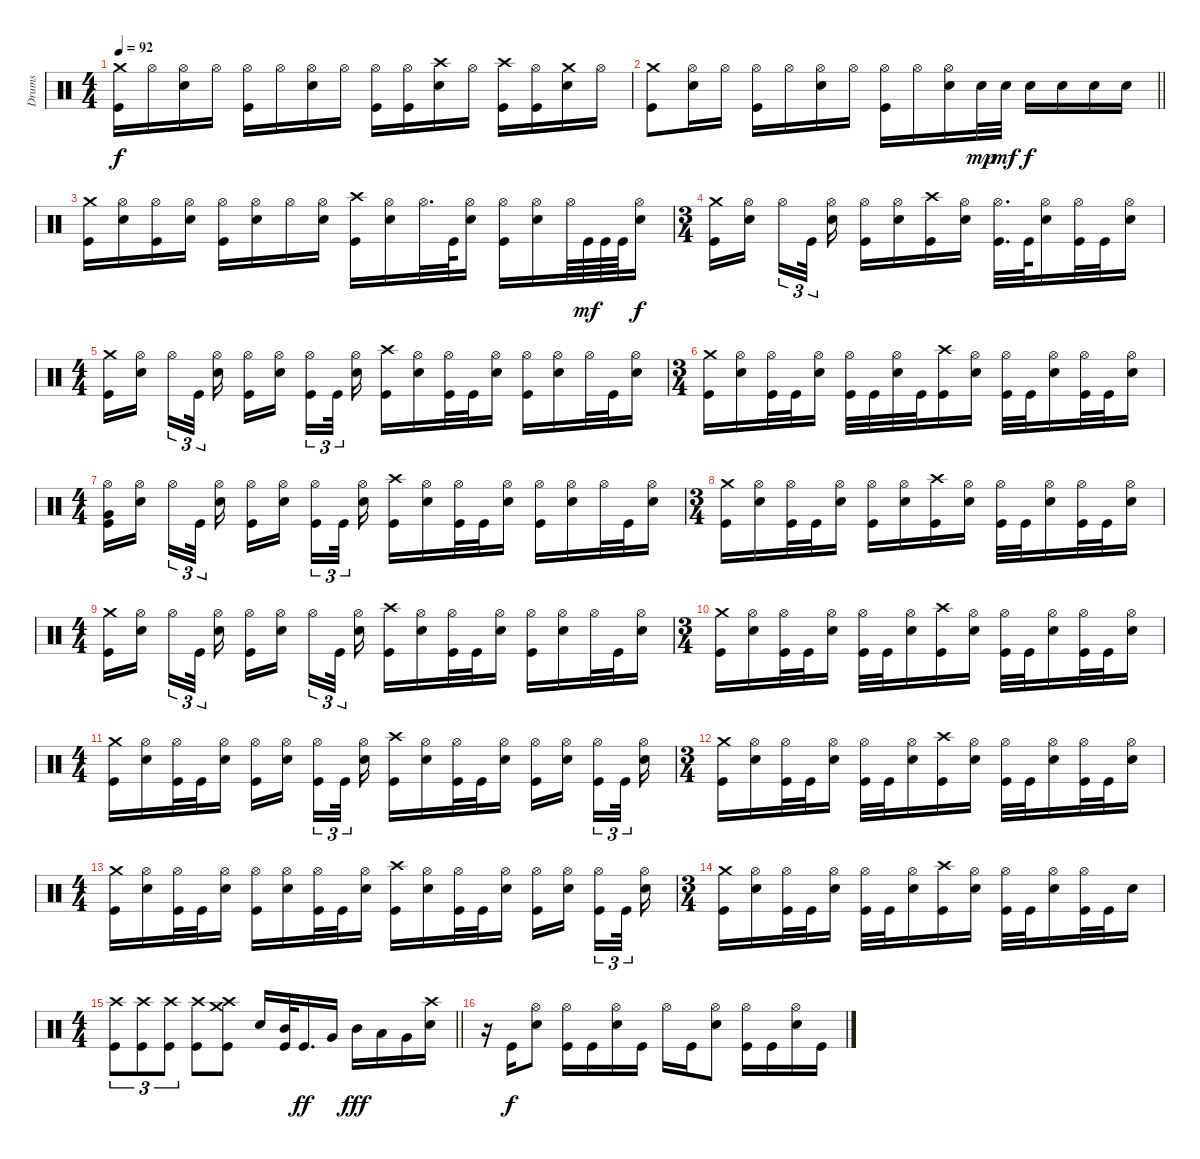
\track ("Drums" "Drums") {instrument percussion}
\staff {score}
\articulation defaults
\ts (4 4)
\tempo 92
\clef neutral
\ks c
("Crash medium (hit)" "Kick (hit)").16{dy f} "Hi-Hat (open)".16 ("Hi-Hat (open)" "Snare (hit) 2").16 "Hi-Hat (open)".16 ("Hi-Hat (open)" "Kick (hit)").16 "Hi-Hat (open)".16 ("Hi-Hat (open)" "Snare (hit) 2").16 "Hi-Hat (open)".16 ("Hi-Hat (open)" "Kick (hit)").16 ("Hi-Hat (open)" "Kick (hit)").16 ("Crash high (hit)" "Snare (hit) 2").16 "Hi-Hat (open)".16 ("Crash high (hit)" "Kick (hit)").16 ("Hi-Hat (open)" "Kick (hit)").16 ("Crash medium (hit)" "Snare (hit) 2").16 "Hi-Hat (open)".16 |
\barLineRight lightlight
("Crash medium (hit)" "Kick (hit)").8 ("Hi-Hat (open)" "Snare (hit) 2").16 "Hi-Hat (open)".16 ("Hi-Hat (open)" "Kick (hit)").16 "Hi-Hat (open)".16 ("Hi-Hat (open)" "Snare (hit) 2").16 "Hi-Hat (open)".16 ("Hi-Hat (open)" "Kick (hit)").16 "Hi-Hat (open)".16 ("Hi-Hat (open)" "Snare (hit) 2").16 "Snare (hit) 2".32{dy mp} "Snare (hit) 2".32{dy mf} "Snare (hit) 2".16{dy f} "Snare (hit) 2".16 "Snare (hit) 2".16 "Snare (hit) 2".16 |
("Crash medium (hit)" "Kick (hit)").16 ("Hi-Hat (open)" "Snare (hit) 2").16 ("Hi-Hat (open)" "Kick (hit)").16 ("Hi-Hat (open)" "Snare (hit) 2").16 ("Hi-Hat (open)" "Kick (hit)").16 ("Hi-Hat (open)" "Snare (hit) 2").16 "Hi-Hat (open)".16 ("Hi-Hat (open)" "Snare (hit) 2").16 ("Crash high (hit)" "Kick (hit)").16 ("Hi-Hat (open)" "Snare (hit) 2").16 "Hi-Hat (open)".32{d} "Kick (hit)".64 ("Hi-Hat (open)" "Snare (hit) 2").16 ("Hi-Hat (open)" "Kick (hit)").16 ("Hi-Hat (open)" "Snare (hit) 2").16 "Hi-Hat (open)".64 "Kick (hit)".64{dy mf} "Kick (hit)".64 "Kick (hit)".64 ("Hi-Hat (open)" "Snare (hit) 2").16{dy f} |
\ts (3 4)
\beaming (8 2 2 2)
("Crash medium (hit)" "Kick (hit)").16 ("Hi-Hat (open)" "Snare (hit) 2").16 "Hi-Hat (open)".16{tu (3 2)} "Kick (hit)".32{tu (3 2)} ("Hi-Hat (open)" "Snare (hit) 2").16 ("Hi-Hat (open)" "Kick (hit)").16 ("Hi-Hat (open)" "Snare (hit) 2").16 ("Crash high (hit)" "Kick (hit)").16 ("Hi-Hat (open)" "Snare (hit) 2").16 ("Hi-Hat (open)" "Kick (hit)").32{d} "Kick (hit)".64 ("Hi-Hat (open)" "Snare (hit) 2").16 ("Hi-Hat (open)" "Kick (hit)").32 "Kick (hit)".32 ("Hi-Hat (open)" "Snare (hit) 2").16 |
\ts (4 4)
\beaming (8 2 2 2 2)
("Crash medium (hit)" "Kick (hit)").16 ("Hi-Hat (open)" "Snare (hit) 2").16 "Hi-Hat (open)".16{tu (3 2)} "Kick (hit)".32{tu (3 2)} ("Hi-Hat (open)" "Snare (hit) 2").16 ("Hi-Hat (open)" "Kick (hit)").16 ("Hi-Hat (open)" "Snare (hit) 2").16 ("Hi-Hat (open)" "Kick (hit)").16{tu (3 2)} "Kick (hit)".32{tu (3 2)} ("Hi-Hat (open)" "Snare (hit) 2").16 ("Crash high (hit)" "Kick (hit)").16 ("Hi-Hat (open)" "Snare (hit) 2").16 ("Hi-Hat (open)" "Kick (hit)").32 "Kick (hit)".32 ("Hi-Hat (open)" "Snare (hit) 2").16 ("Hi-Hat (open)" "Kick (hit)").16 ("Hi-Hat (open)" "Snare (hit) 2").16 "Hi-Hat (open)".32 "Kick (hit)".32 ("Hi-Hat (open)" "Snare (hit) 2").16 |
\ts (3 4)
\beaming (8 2 2 2)
("Crash medium (hit)" "Kick (hit)").16 ("Hi-Hat (open)" "Snare (hit) 2").16 ("Hi-Hat (open)" "Kick (hit)").32 "Kick (hit)".32 ("Hi-Hat (open)" "Snare (hit) 2").16 ("Hi-Hat (open)" "Kick (hit)").32 "Kick (hit)".32 ("Hi-Hat (open)" "Snare (hit) 2").32 "Kick (hit)".32 ("Crash high (hit)" "Kick (hit)").16 ("Hi-Hat (open)" "Snare (hit) 2").16 ("Hi-Hat (open)" "Kick (hit)").32 "Kick (hit)".32 ("Hi-Hat (open)" "Snare (hit) 2").16 ("Hi-Hat (open)" "Kick (hit)").32 "Kick (hit)".32 ("Hi-Hat (open)" "Snare (hit) 2").16 |
\ts (4 4)
\beaming (8 2 2 2 2)
("Hi-Hat (open)" "Very Low Tom (hit)" "Kick (hit)").16 ("Hi-Hat (open)" "Snare (hit) 2").16 "Hi-Hat (open)".16{tu (3 2)} "Kick (hit)".32{tu (3 2)} ("Hi-Hat (open)" "Snare (hit) 2").16 ("Hi-Hat (open)" "Kick (hit)").16 ("Hi-Hat (open)" "Snare (hit) 2").16 ("Hi-Hat (open)" "Kick (hit)").16{tu (3 2)} "Kick (hit)".32{tu (3 2)} ("Hi-Hat (open)" "Snare (hit) 2").16 ("Crash high (hit)" "Kick (hit)").16 ("Hi-Hat (open)" "Snare (hit) 2").16 ("Hi-Hat (open)" "Kick (hit)").32 "Kick (hit)".32 ("Hi-Hat (open)" "Snare (hit) 2").16 ("Hi-Hat (open)" "Kick (hit)").16 ("Hi-Hat (open)" "Snare (hit) 2").16 "Hi-Hat (open)".32 "Kick (hit)".32 ("Hi-Hat (open)" "Snare (hit) 2").16 |
\ts (3 4)
\beaming (8 2 2 2)
("Crash medium (hit)" "Kick (hit)").16 ("Hi-Hat (open)" "Snare (hit) 2").16 ("Hi-Hat (open)" "Kick (hit)").32 "Kick (hit)".32 ("Hi-Hat (open)" "Snare (hit) 2").16 ("Hi-Hat (open)" "Kick (hit)").16 ("Hi-Hat (open)" "Snare (hit) 2").16 ("Crash high (hit)" "Kick (hit)").16 ("Hi-Hat (open)" "Snare (hit) 2").16 ("Hi-Hat (open)" "Kick (hit)").32 "Kick (hit)".32 ("Hi-Hat (open)" "Snare (hit) 2").16 ("Hi-Hat (open)" "Kick (hit)").32 "Kick (hit)".32 ("Hi-Hat (open)" "Snare (hit) 2").16 |
\ts (4 4)
\beaming (8 2 2 2 2)
("Crash medium (hit)" "Kick (hit)").16 ("Hi-Hat (open)" "Snare (hit) 2").16 "Hi-Hat (open)".16{tu (3 2)} "Kick (hit)".32{tu (3 2)} ("Hi-Hat (open)" "Snare (hit) 2").16 ("Hi-Hat (open)" "Kick (hit)").16 ("Hi-Hat (open)" "Snare (hit) 2").16 "Hi-Hat (open)".16{tu (3 2)} "Kick (hit)".32{tu (3 2)} ("Hi-Hat (open)" "Snare (hit) 2").16 ("Crash high (hit)" "Kick (hit)").16 ("Hi-Hat (open)" "Snare (hit) 2").16 ("Hi-Hat (open)" "Kick (hit)").32 "Kick (hit)".32 ("Hi-Hat (open)" "Snare (hit) 2").16 ("Hi-Hat (open)" "Kick (hit)").16 ("Hi-Hat (open)" "Snare (hit) 2").16 "Hi-Hat (open)".32 "Kick (hit)".32 ("Hi-Hat (open)" "Snare (hit) 2").16 |
\ts (3 4)
\beaming (8 2 2 2)
("Crash medium (hit)" "Kick (hit)").16 ("Hi-Hat (open)" "Snare (hit) 2").16 ("Hi-Hat (open)" "Kick (hit)").32 "Kick (hit)".32 ("Hi-Hat (open)" "Snare (hit) 2").16 ("Hi-Hat (open)" "Kick (hit)").32 "Kick (hit)".32 ("Hi-Hat (open)" "Snare (hit) 2").16 ("Crash high (hit)" "Kick (hit)").16 ("Hi-Hat (open)" "Snare (hit) 2").16 ("Hi-Hat (open)" "Kick (hit)").32 "Kick (hit)".32 ("Hi-Hat (open)" "Snare (hit) 2").16 ("Hi-Hat (open)" "Kick (hit)").32 "Kick (hit)".32 ("Hi-Hat (open)" "Snare (hit) 2").16 |
\ts (4 4)
\beaming (8 2 2 2 2)
("Crash medium (hit)" "Kick (hit)").16 ("Hi-Hat (open)" "Snare (hit) 2").16 ("Hi-Hat (open)" "Kick (hit)").32 "Kick (hit)".32 ("Hi-Hat (open)" "Snare (hit) 2").16 ("Hi-Hat (open)" "Kick (hit)").16 ("Hi-Hat (open)" "Snare (hit) 2").16 ("Hi-Hat (open)" "Kick (hit)").16{tu (3 2)} "Kick (hit)".32{tu (3 2)} ("Hi-Hat (open)" "Snare (hit) 2").16 ("Crash high (hit)" "Kick (hit)").16 ("Hi-Hat (open)" "Snare (hit) 2").16 ("Hi-Hat (open)" "Kick (hit)").32 "Kick (hit)".32 ("Hi-Hat (open)" "Snare (hit) 2").16 ("Hi-Hat (open)" "Kick (hit)").16 ("Hi-Hat (open)" "Snare (hit) 2").16 ("Hi-Hat (open)" "Kick (hit)").16{tu (3 2)} "Kick (hit)".32{tu (3 2)} ("Hi-Hat (open)" "Snare (hit) 2").16 |
\ts (3 4)
\beaming (8 2 2 2 2)
("Crash medium (hit)" "Kick (hit)").16 ("Hi-Hat (open)" "Snare (hit) 2").16 ("Hi-Hat (open)" "Kick (hit)").32 "Kick (hit)".32 ("Hi-Hat (open)" "Snare (hit) 2").16 ("Hi-Hat (open)" "Kick (hit)").32 "Kick (hit)".32 ("Hi-Hat (open)" "Snare (hit) 2").16 ("Crash high (hit)" "Kick (hit)").16 ("Hi-Hat (open)" "Snare (hit) 2").16 ("Hi-Hat (open)" "Kick (hit)").32 "Kick (hit)".32 ("Hi-Hat (open)" "Snare (hit) 2").16 ("Hi-Hat (open)" "Kick (hit)").32 "Kick (hit)".32 ("Hi-Hat (open)" "Snare (hit) 2").16 |
\ts (4 4)
\beaming (8 2 2 2 2)
("Crash medium (hit)" "Kick (hit)").16 ("Hi-Hat (open)" "Snare (hit) 2").16 ("Hi-Hat (open)" "Kick (hit)").32 "Kick (hit)".32 ("Hi-Hat (open)" "Snare (hit) 2").16 ("Hi-Hat (open)" "Kick (hit)").16 ("Hi-Hat (open)" "Snare (hit) 2").16 ("Hi-Hat (open)" "Kick (hit)").32 "Kick (hit)".32 ("Hi-Hat (open)" "Snare (hit) 2").16 ("Crash high (hit)" "Kick (hit)").16 ("Hi-Hat (open)" "Snare (hit) 2").16 ("Hi-Hat (open)" "Kick (hit)").32 "Kick (hit)".32 ("Hi-Hat (open)" "Snare (hit) 2").16 ("Hi-Hat (open)" "Kick (hit)").16 ("Hi-Hat (open)" "Snare (hit) 2").16 ("Hi-Hat (open)" "Kick (hit)").16{tu (3 2)} "Kick (hit)".32{tu (3 2)} ("Hi-Hat (open)" "Snare (hit) 2").16 |
\ts (3 4)
\beaming (8 2 2 2 2)
("Crash medium (hit)" "Kick (hit)").16 ("Hi-Hat (open)" "Snare (hit) 2").16 ("Hi-Hat (open)" "Kick (hit)").32 "Kick (hit)".32 ("Hi-Hat (open)" "Snare (hit) 2").16 ("Hi-Hat (open)" "Kick (hit)").32 "Kick (hit)".32 ("Hi-Hat (open)" "Snare (hit) 2").16 ("Crash high (hit)" "Kick (hit)").16 ("Hi-Hat (open)" "Snare (hit) 2").16 ("Hi-Hat (open)" "Kick (hit)").32 "Kick (hit)".32 ("Hi-Hat (open)" "Snare (hit) 2").16 ("Hi-Hat (open)" "Kick (hit)").32 "Kick (hit)".32 "Snare (hit) 2".16 |
\ts (4 4)
\beaming (8 2 2 2 2)
\barLineRight lightlight
("Crash high (hit)" "Kick (hit)").8{tu (3 2)} ("Crash high (hit)" "Kick (hit)").8{tu (3 2)} ("Crash high (hit)" "Kick (hit)").8{tu (3 2)} ("Crash high (hit)" "Kick (hit)").8 ("Crash high (hit)" "Crash medium (hit)" "Kick (hit)").8 "Snare (hit) 2".16 ("Mid Tom (hit)" "Kick (hit)").32 "Kick (hit)".16{d dy ff} "Very Low Tom (hit)".16 "Mid Tom (hit)".16{dy fff} "Low Tom (hit)".16 "Very Low Tom (hit)".16 ("Crash high (hit)" "Snare (hit) 2").16 |
r.16 "Kick (hit)".16{dy f} ("Hi-Hat (open)" "Snare (hit) 2").8 ("Hi-Hat (open)" "Kick (hit)").16 "Kick (hit)".16 ("Hi-Hat (open)" "Snare (hit) 2").16 "Kick (hit)".16 "Hi-Hat (open)".16 "Kick (hit)".16 ("Hi-Hat (open)" "Snare (hit) 2").8 ("Hi-Hat (open)" "Kick (hit)").16 "Kick (hit)".16 ("Hi-Hat (open)" "Snare (hit) 2").16 "Kick (hit)".16
